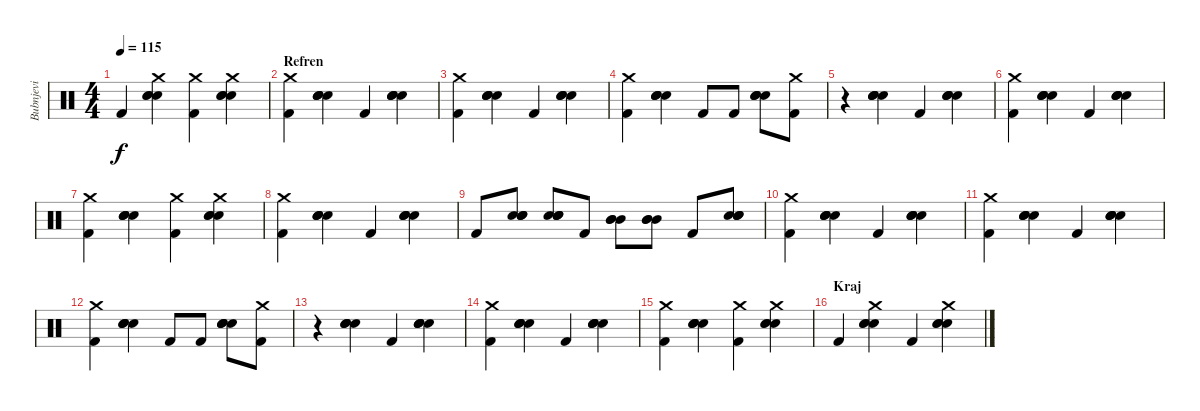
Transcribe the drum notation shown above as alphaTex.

\track ("Bubnjevi" "Bubnjevi") {instrument percussion}
\staff {score}
\articulation defaults
\ts (4 4)
\tempo 115
\clef neutral
\ks c "Kick (hit) 2".4{dy f}
("Electric Snare (hit)" "Electric Snare (hit)" "Crash medium (hit)" "Electric Snare (hit)").4 ("Crash medium (hit)" "Kick (hit) 2").4 ("Electric Snare (hit)" "Electric Snare (hit)" "Crash medium (hit)" "Electric Snare (hit)").4 |
\section ("" "Refren")
("Crash medium (hit)" "Kick (hit) 2").4 ("Electric Snare (hit)" "Electric Snare (hit)" "Electric Snare (hit)" "Electric Snare (hit)").4 "Kick (hit) 2".4 ("Electric Snare (hit)" "Electric Snare (hit)" "Electric Snare (hit)" "Electric Snare (hit)").4 |
("Crash medium (hit)" "Kick (hit) 2").4 ("Electric Snare (hit)" "Electric Snare (hit)" "Electric Snare (hit)" "Electric Snare (hit)").4 "Kick (hit) 2".4 ("Electric Snare (hit)" "Electric Snare (hit)" "Electric Snare (hit)" "Electric Snare (hit)").4 |
("Crash medium (hit)" "Kick (hit) 2").4 ("Electric Snare (hit)" "Electric Snare (hit)" "Electric Snare (hit)" "Electric Snare (hit)").4 "Kick (hit) 2".8 "Kick (hit) 2".8 ("Electric Snare (hit)" "Electric Snare (hit)" "Electric Snare (hit)" "Electric Snare (hit)").8 ("Crash medium (hit)" "Kick (hit) 2").8 |
r.4 ("Electric Snare (hit)" "Electric Snare (hit)" "Electric Snare (hit)" "Electric Snare (hit)").4 "Kick (hit) 2".4 ("Electric Snare (hit)" "Electric Snare (hit)" "Electric Snare (hit)" "Electric Snare (hit)").4 |
("Crash medium (hit)" "Kick (hit) 2").4 ("Electric Snare (hit)" "Electric Snare (hit)" "Electric Snare (hit)" "Electric Snare (hit)").4 "Kick (hit) 2".4 ("Electric Snare (hit)" "Electric Snare (hit)" "Electric Snare (hit)" "Electric Snare (hit)").4 |
("Crash medium (hit)" "Kick (hit) 2").4 ("Electric Snare (hit)" "Electric Snare (hit)" "Electric Snare (hit)" "Electric Snare (hit)").4 ("Crash medium (hit)" "Kick (hit) 2").4 ("Electric Snare (hit)" "Electric Snare (hit)" "Crash medium (hit)" "Electric Snare (hit)").4 |
("Crash medium (hit)" "Kick (hit) 2").4 ("Electric Snare (hit)" "Electric Snare (hit)" "Electric Snare (hit)" "Electric Snare (hit)").4 "Kick (hit) 2".4 ("Electric Snare (hit)" "Electric Snare (hit)" "Electric Snare (hit)" "Electric Snare (hit)").4 |
"Kick (hit) 2".8 ("Electric Snare (hit)" "Electric Snare (hit)" "Electric Snare (hit)" "Electric Snare (hit)").8 ("Electric Snare (hit)" "Electric Snare (hit)" "Electric Snare (hit)" "Electric Snare (hit)").8 "Kick (hit) 2".8 ("Mid Tom (hit)" "Mid Tom (hit)" "Mid Tom (hit)").8 ("Mid Tom (hit)" "Mid Tom (hit)" "Mid Tom (hit)").8 "Kick (hit) 2".8 ("Electric Snare (hit)" "Electric Snare (hit)" "Electric Snare (hit)" "Electric Snare (hit)").8 |
("Crash medium (hit)" "Kick (hit) 2").4 ("Electric Snare (hit)" "Electric Snare (hit)" "Electric Snare (hit)" "Electric Snare (hit)").4 "Kick (hit) 2".4 ("Electric Snare (hit)" "Electric Snare (hit)" "Electric Snare (hit)" "Electric Snare (hit)").4 |
("Crash medium (hit)" "Kick (hit) 2").4 ("Electric Snare (hit)" "Electric Snare (hit)" "Electric Snare (hit)" "Electric Snare (hit)").4 "Kick (hit) 2".4 ("Electric Snare (hit)" "Electric Snare (hit)" "Electric Snare (hit)" "Electric Snare (hit)").4 |
("Crash medium (hit)" "Kick (hit) 2").4 ("Electric Snare (hit)" "Electric Snare (hit)" "Electric Snare (hit)" "Electric Snare (hit)").4 "Kick (hit) 2".8 "Kick (hit) 2".8 ("Electric Snare (hit)" "Electric Snare (hit)" "Electric Snare (hit)" "Electric Snare (hit)").8 ("Crash medium (hit)" "Kick (hit) 2").8 |
r.4 ("Electric Snare (hit)" "Electric Snare (hit)" "Electric Snare (hit)" "Electric Snare (hit)").4 "Kick (hit) 2".4 ("Electric Snare (hit)" "Electric Snare (hit)" "Electric Snare (hit)" "Electric Snare (hit)").4 |
("Crash medium (hit)" "Kick (hit) 2").4 ("Electric Snare (hit)" "Electric Snare (hit)" "Electric Snare (hit)" "Electric Snare (hit)").4 "Kick (hit) 2".4 ("Electric Snare (hit)" "Electric Snare (hit)" "Electric Snare (hit)" "Electric Snare (hit)").4 |
("Crash medium (hit)" "Kick (hit) 2").4 ("Electric Snare (hit)" "Electric Snare (hit)" "Electric Snare (hit)" "Electric Snare (hit)").4 ("Crash medium (hit)" "Kick (hit) 2").4 ("Electric Snare (hit)" "Electric Snare (hit)" "Crash medium (hit)" "Electric Snare (hit)").4 |
\section ("" "Kraj")
"Kick (hit) 2".4 ("Electric Snare (hit)" "Electric Snare (hit)" "Crash medium (hit)" "Electric Snare (hit)").4 "Kick (hit) 2".4 ("Electric Snare (hit)" "Electric Snare (hit)" "Crash medium (hit)" "Electric Snare (hit)").4
